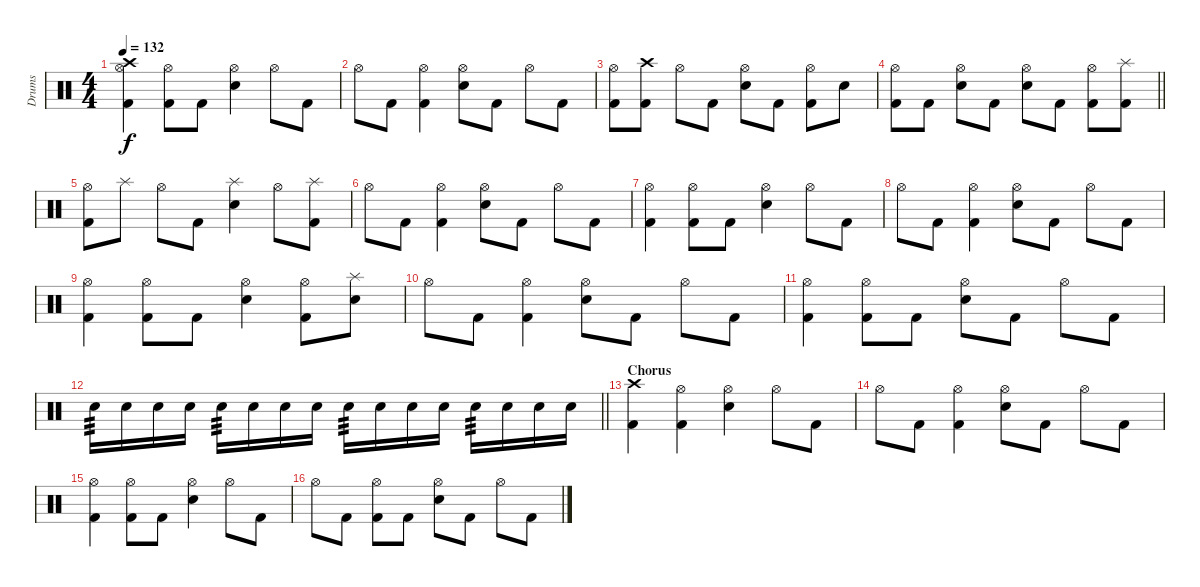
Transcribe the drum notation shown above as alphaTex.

\track ("Drums" "Drums") {instrument percussion}
\staff {score}
\articulation defaults
\ts (4 4)
\tempo 132
\clef neutral
\ks c
("Crash high (hit)" "Hi-Hat (open)" "Kick (hit) 2").4{dy f} ("Hi-Hat (open)" "Kick (hit) 2").8 "Kick (hit) 2".8 ("Hi-Hat (open)" "Electric Snare (hit)").4 "Hi-Hat (open)".8 "Kick (hit) 2".8 |
"Hi-Hat (open)".8 "Kick (hit) 2".8 ("Hi-Hat (open)" "Kick (hit) 2").4 ("Hi-Hat (open)" "Electric Snare (hit)").8 "Kick (hit) 2".8 "Hi-Hat (open)".8 "Kick (hit) 2".8 |
("Hi-Hat (open)" "Kick (hit) 2").8 ("Crash high (hit)" "Kick (hit) 2").8 "Hi-Hat (open)".8 "Kick (hit) 2".8 ("Hi-Hat (open)" "Electric Snare (hit)").8 "Kick (hit) 2".8 ("Hi-Hat (open)" "Kick (hit) 2").8 "Electric Snare (hit)".8 |
\barLineRight lightlight
("Hi-Hat (open)" "Kick (hit) 2").8 "Kick (hit) 2".8 ("Hi-Hat (open)" "Electric Snare (hit)").8 "Kick (hit) 2".8 ("Hi-Hat (open)" "Electric Snare (hit)").8 "Kick (hit) 2".8 ("Hi-Hat (open)" "Kick (hit) 2").8 ("Splash (hit)" "Kick (hit) 2").8 |
("Hi-Hat (open)" "Kick (hit) 2").8 "Splash (hit)".8 "Hi-Hat (open)".8 "Kick (hit) 2".8 ("Splash (hit)" "Electric Snare (hit)").4 "Hi-Hat (open)".8 ("Splash (hit)" "Kick (hit) 2").8 |
"Hi-Hat (open)".8 "Kick (hit) 2".8 ("Hi-Hat (open)" "Kick (hit) 2").4 ("Hi-Hat (open)" "Electric Snare (hit)").8 "Kick (hit) 2".8 "Hi-Hat (open)".8 "Kick (hit) 2".8 |
("Hi-Hat (open)" "Kick (hit) 2").4 ("Hi-Hat (open)" "Kick (hit) 2").8 "Kick (hit) 2".8 ("Hi-Hat (open)" "Electric Snare (hit)").4 "Hi-Hat (open)".8 "Kick (hit) 2".8 |
"Hi-Hat (open)".8 "Kick (hit) 2".8 ("Hi-Hat (open)" "Kick (hit) 2").4 ("Hi-Hat (open)" "Electric Snare (hit)").8 "Kick (hit) 2".8 "Hi-Hat (open)".8 "Kick (hit) 2".8 |
("Hi-Hat (open)" "Kick (hit) 2").4 ("Hi-Hat (open)" "Kick (hit) 2").8 "Kick (hit) 2".8 ("Hi-Hat (open)" "Electric Snare (hit)").4 ("Hi-Hat (open)" "Kick (hit) 2").8 ("Splash (hit)" "Electric Snare (hit)").8 |
"Hi-Hat (open)".8 "Kick (hit) 2".8 ("Hi-Hat (open)" "Kick (hit) 2").4 ("Hi-Hat (open)" "Electric Snare (hit)").8 "Kick (hit) 2".8 "Hi-Hat (open)".8 "Kick (hit) 2".8 |
("Hi-Hat (open)" "Kick (hit) 2").4 ("Hi-Hat (open)" "Kick (hit) 2").8 "Kick (hit) 2".8 ("Hi-Hat (open)" "Electric Snare (hit)").8 "Kick (hit) 2".8 "Hi-Hat (open)".8 "Kick (hit) 2".8 |
\barLineRight lightlight "Electric Snare (hit)".16{tp 3} "Electric Snare (hit)".16 "Electric Snare (hit)".16 "Electric Snare (hit)".16 "Electric Snare (hit)".16{tp 3} "Electric Snare (hit)".16 "Electric Snare (hit)".16 "Electric Snare (hit)".16 "Electric Snare (hit)".16{tp 3} "Electric Snare (hit)".16 "Electric Snare (hit)".16 "Electric Snare (hit)".16 "Electric Snare (hit)".16{tp 3} "Electric Snare (hit)".16 "Electric Snare (hit)".16 "Electric Snare (hit)".16
|
\section ("" "Chorus")
("Crash high (hit)" "Kick (hit) 2").4 ("Hi-Hat (open)" "Kick (hit) 2").4 ("Hi-Hat (open)" "Electric Snare (hit)").4 "Hi-Hat (open)".8 "Kick (hit) 2".8 |
"Hi-Hat (open)".8 "Kick (hit) 2".8 ("Hi-Hat (open)" "Kick (hit) 2").4 ("Hi-Hat (open)" "Electric Snare (hit)").8 "Kick (hit) 2".8 "Hi-Hat (open)".8 "Kick (hit) 2".8 |
("Hi-Hat (open)" "Kick (hit) 2").4 ("Hi-Hat (open)" "Kick (hit) 2").8 "Kick (hit) 2".8 ("Hi-Hat (open)" "Electric Snare (hit)").4 "Hi-Hat (open)".8 "Kick (hit) 2".8 |
"Hi-Hat (open)".8 "Kick (hit) 2".8 ("Hi-Hat (open)" "Kick (hit) 2").8 "Kick (hit) 2".8 ("Hi-Hat (open)" "Electric Snare (hit)").8 "Kick (hit) 2".8 "Hi-Hat (open)".8 "Kick (hit) 2".8
